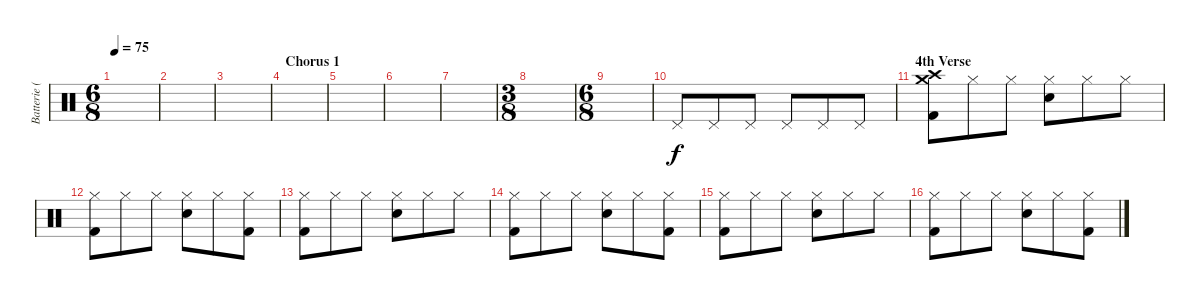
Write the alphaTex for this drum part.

\track ("Batterie ( Lars Ulrich )" "Batterie (") {instrument percussion}
\staff {score}
\articulation defaults
\ts (6 8)
\tempo 75
\clef neutral
\ks c
|
|
|
\section ("" "Chorus 1")
|
|
|
|
\ts (3 8)
|
\ts (6 8)
|
"Pedal Hi-Hat (hit)".8{volume 14} "Pedal Hi-Hat (hit)".8 "Pedal Hi-Hat (hit)".8 "Pedal Hi-Hat (hit)".8 "Pedal Hi-Hat (hit)".8 "Pedal Hi-Hat (hit)".8 |
\section ("" "4th Verse")
("Kick (hit) 2" "Crash medium (hit)" "Crash high (hit)").8 "Hi-Hat (closed)".8 "Hi-Hat (closed)".8 ("Snare (hit) 2" "Hi-Hat (closed)").8 "Hi-Hat (closed)".8 "Hi-Hat (closed)".8 |
("Kick (hit) 2" "Hi-Hat (closed)").8 "Hi-Hat (closed)".8 "Hi-Hat (closed)".8 ("Snare (hit) 2" "Hi-Hat (closed)").8 "Hi-Hat (closed)".8 ("Kick (hit) 2" "Hi-Hat (closed)").8 |
("Hi-Hat (closed)" "Kick (hit) 2").8 "Hi-Hat (closed)".8 "Hi-Hat (closed)".8 ("Snare (hit) 2" "Hi-Hat (closed)").8 "Hi-Hat (closed)".8 "Hi-Hat (closed)".8 |
("Kick (hit) 2" "Hi-Hat (closed)").8 "Hi-Hat (closed)".8 "Hi-Hat (closed)".8 ("Snare (hit) 2" "Hi-Hat (closed)").8 "Hi-Hat (closed)".8 ("Kick (hit) 2" "Hi-Hat (closed)").8 |
("Kick (hit) 2" "Hi-Hat (closed)").8 "Hi-Hat (closed)".8 "Hi-Hat (closed)".8 ("Snare (hit) 2" "Hi-Hat (closed)").8 "Hi-Hat (closed)".8 "Hi-Hat (closed)".8 |
("Kick (hit) 2" "Hi-Hat (closed)").8 "Hi-Hat (closed)".8 "Hi-Hat (closed)".8 ("Snare (hit) 2" "Hi-Hat (closed)").8 "Hi-Hat (closed)".8 ("Kick (hit) 2" "Hi-Hat (closed)").8
